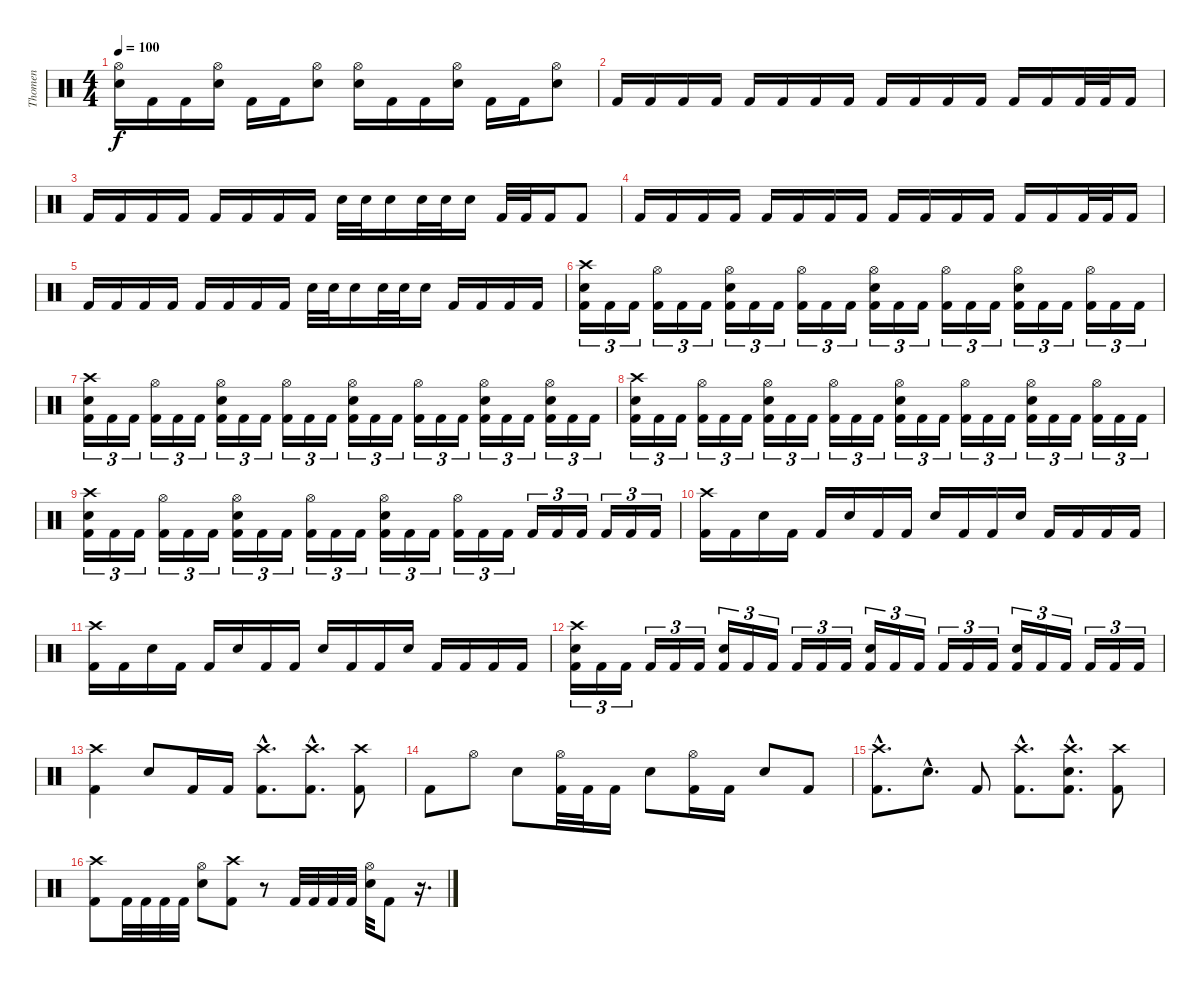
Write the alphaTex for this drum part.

\track ("Thomen" "Thomen") {instrument percussion}
\staff {score}
\articulation defaults
\ts (4 4)
\tempo 100
\clef neutral
\ks c
("Hi-Hat (open)" "Snare (hit) 2").16{dy f} "Kick (hit) 2".16 "Kick (hit) 2".16 ("Hi-Hat (open)" "Snare (hit) 2").16 "Kick (hit) 2".16 "Kick (hit) 2".16 ("Hi-Hat (open)" "Snare (hit) 2").8 ("Hi-Hat (open)" "Snare (hit) 2").16 "Kick (hit) 2".16 "Kick (hit) 2".16 ("Hi-Hat (open)" "Snare (hit) 2").16 "Kick (hit) 2".16 "Kick (hit) 2".16 ("Hi-Hat (open)" "Snare (hit) 2").8 |
"Kick (hit) 2".16 "Kick (hit) 2".16 "Kick (hit) 2".16 "Kick (hit) 2".16 "Kick (hit) 2".16 "Kick (hit) 2".16 "Kick (hit) 2".16 "Kick (hit) 2".16 "Kick (hit) 2".16 "Kick (hit) 2".16 "Kick (hit) 2".16 "Kick (hit) 2".16 "Kick (hit) 2".16 "Kick (hit) 2".16 "Kick (hit) 2".32 "Kick (hit) 2".32 "Kick (hit) 2".16 |
"Kick (hit) 2".16 "Kick (hit) 2".16 "Kick (hit) 2".16 "Kick (hit) 2".16 "Kick (hit) 2".16 "Kick (hit) 2".16 "Kick (hit) 2".16 "Kick (hit) 2".16 "Snare (hit) 2".32 "Snare (hit) 2".32 "Snare (hit) 2".16 "Snare (hit) 2".32 "Snare (hit) 2".32 "Snare (hit) 2".16 "Kick (hit) 2".32 "Kick (hit) 2".32 "Kick (hit) 2".16 "Kick (hit) 2".8 |
"Kick (hit) 2".16 "Kick (hit) 2".16 "Kick (hit) 2".16 "Kick (hit) 2".16 "Kick (hit) 2".16 "Kick (hit) 2".16 "Kick (hit) 2".16 "Kick (hit) 2".16 "Kick (hit) 2".16 "Kick (hit) 2".16 "Kick (hit) 2".16 "Kick (hit) 2".16 "Kick (hit) 2".16 "Kick (hit) 2".16 "Kick (hit) 2".32 "Kick (hit) 2".32 "Kick (hit) 2".16 |
"Kick (hit) 2".16 "Kick (hit) 2".16 "Kick (hit) 2".16 "Kick (hit) 2".16 "Kick (hit) 2".16 "Kick (hit) 2".16 "Kick (hit) 2".16 "Kick (hit) 2".16 "Snare (hit) 2".32 "Snare (hit) 2".32 "Snare (hit) 2".16 "Snare (hit) 2".32 "Snare (hit) 2".32 "Snare (hit) 2".16 "Kick (hit) 2".16 "Kick (hit) 2".16 "Kick (hit) 2".16 "Kick (hit) 2".16 |
("Crash high (hit)" "Snare (hit) 2" "Kick (hit) 2").16{tu (3 2)} "Kick (hit) 2".16{tu (3 2)} "Kick (hit) 2".16{tu (3 2)} ("Hi-Hat (open)" "Kick (hit) 2").16{tu (3 2)} "Kick (hit) 2".16{tu (3 2)} "Kick (hit) 2".16{tu (3 2)} ("Hi-Hat (open)" "Snare (hit) 2" "Kick (hit) 2").16{tu (3 2)} "Kick (hit) 2".16{tu (3 2)} "Kick (hit) 2".16{tu (3 2)} ("Hi-Hat (open)" "Kick (hit) 2").16{tu (3 2)} "Kick (hit) 2".16{tu (3 2)} "Kick (hit) 2".16{tu (3 2)} ("Hi-Hat (open)" "Snare (hit) 2" "Kick (hit) 2").16{tu (3 2)} "Kick (hit) 2".16{tu (3 2)} "Kick (hit) 2".16{tu (3 2)} ("Hi-Hat (open)" "Kick (hit) 2").16{tu (3 2)} "Kick (hit) 2".16{tu (3 2)} "Kick (hit) 2".16{tu (3 2)} ("Hi-Hat (open)" "Snare (hit) 2" "Kick (hit) 2").16{tu (3 2)} "Kick (hit) 2".16{tu (3 2)} "Kick (hit) 2".16{tu (3 2)} ("Hi-Hat (open)" "Kick (hit) 2").16{tu (3 2)} "Kick (hit) 2".16{tu (3 2)} "Kick (hit) 2".16{tu (3 2)} |
("Crash high (hit)" "Snare (hit) 2" "Kick (hit) 2").16{tu (3 2)} "Kick (hit) 2".16{tu (3 2)} "Kick (hit) 2".16{tu (3 2)} ("Hi-Hat (open)" "Kick (hit) 2").16{tu (3 2)} "Kick (hit) 2".16{tu (3 2)} "Kick (hit) 2".16{tu (3 2)} ("Hi-Hat (open)" "Snare (hit) 2" "Kick (hit) 2").16{tu (3 2)} "Kick (hit) 2".16{tu (3 2)} "Kick (hit) 2".16{tu (3 2)} ("Hi-Hat (open)" "Kick (hit) 2").16{tu (3 2)} "Kick (hit) 2".16{tu (3 2)} "Kick (hit) 2".16{tu (3 2)} ("Hi-Hat (open)" "Snare (hit) 2" "Kick (hit) 2").16{tu (3 2)} "Kick (hit) 2".16{tu (3 2)} "Kick (hit) 2".16{tu (3 2)} ("Hi-Hat (open)" "Kick (hit) 2").16{tu (3 2)} "Kick (hit) 2".16{tu (3 2)} "Kick (hit) 2".16{tu (3 2)} ("Hi-Hat (open)" "Snare (hit) 2" "Kick (hit) 2").16{tu (3 2)} "Kick (hit) 2".16{tu (3 2)} "Kick (hit) 2".16{tu (3 2)} ("Hi-Hat (open)" "Snare (hit) 2" "Kick (hit) 2").16{tu (3 2)} "Kick (hit) 2".16{tu (3 2)} "Kick (hit) 2".16{tu (3 2)} |
("Crash high (hit)" "Snare (hit) 2" "Kick (hit) 2").16{tu (3 2)} "Kick (hit) 2".16{tu (3 2)} "Kick (hit) 2".16{tu (3 2)} ("Hi-Hat (open)" "Kick (hit) 2").16{tu (3 2)} "Kick (hit) 2".16{tu (3 2)} "Kick (hit) 2".16{tu (3 2)} ("Hi-Hat (open)" "Snare (hit) 2" "Kick (hit) 2").16{tu (3 2)} "Kick (hit) 2".16{tu (3 2)} "Kick (hit) 2".16{tu (3 2)} ("Hi-Hat (open)" "Kick (hit) 2").16{tu (3 2)} "Kick (hit) 2".16{tu (3 2)} "Kick (hit) 2".16{tu (3 2)} ("Hi-Hat (open)" "Snare (hit) 2" "Kick (hit) 2").16{tu (3 2)} "Kick (hit) 2".16{tu (3 2)} "Kick (hit) 2".16{tu (3 2)} ("Hi-Hat (open)" "Kick (hit) 2").16{tu (3 2)} "Kick (hit) 2".16{tu (3 2)} "Kick (hit) 2".16{tu (3 2)} ("Hi-Hat (open)" "Snare (hit) 2" "Kick (hit) 2").16{tu (3 2)} "Kick (hit) 2".16{tu (3 2)} "Kick (hit) 2".16{tu (3 2)} ("Hi-Hat (open)" "Kick (hit) 2").16{tu (3 2)} "Kick (hit) 2".16{tu (3 2)} "Kick (hit) 2".16{tu (3 2)} |
("Crash high (hit)" "Snare (hit) 2" "Kick (hit) 2").16{tu (3 2)} "Kick (hit) 2".16{tu (3 2)} "Kick (hit) 2".16{tu (3 2)} ("Hi-Hat (open)" "Kick (hit) 2").16{tu (3 2)} "Kick (hit) 2".16{tu (3 2)} "Kick (hit) 2".16{tu (3 2)} ("Hi-Hat (open)" "Snare (hit) 2" "Kick (hit) 2").16{tu (3 2)} "Kick (hit) 2".16{tu (3 2)} "Kick (hit) 2".16{tu (3 2)} ("Hi-Hat (open)" "Kick (hit) 2").16{tu (3 2)} "Kick (hit) 2".16{tu (3 2)} "Kick (hit) 2".16{tu (3 2)} ("Hi-Hat (open)" "Snare (hit) 2" "Kick (hit) 2").16{tu (3 2)} "Kick (hit) 2".16{tu (3 2)} "Kick (hit) 2".16{tu (3 2)} ("Hi-Hat (open)" "Kick (hit) 2").16{tu (3 2)} "Kick (hit) 2".16{tu (3 2)} "Kick (hit) 2".16{tu (3 2)} "Kick (hit) 2".16{tu (3 2)} "Kick (hit) 2".16{tu (3 2)} "Kick (hit) 2".16{tu (3 2)} "Kick (hit) 2".16{tu (3 2)} "Kick (hit) 2".16{tu (3 2)} "Kick (hit) 2".16{tu (3 2)} |
("Crash high (hit)" "Kick (hit) 2").16 "Kick (hit) 2".16 "Snare (hit) 2".16 "Kick (hit) 2".16 "Kick (hit) 2".16 "Snare (hit) 2".16 "Kick (hit) 2".16 "Kick (hit) 2".16 "Snare (hit) 2".16 "Kick (hit) 2".16 "Kick (hit) 2".16 "Snare (hit) 2".16 "Kick (hit) 2".16 "Kick (hit) 2".16 "Kick (hit) 2".16 "Kick (hit) 2".16 |
("Crash high (hit)" "Kick (hit) 2").16 "Kick (hit) 2".16 "Snare (hit) 2".16 "Kick (hit) 2".16 "Kick (hit) 2".16 "Snare (hit) 2".16 "Kick (hit) 2".16 "Kick (hit) 2".16 "Snare (hit) 2".16 "Kick (hit) 2".16 "Kick (hit) 2".16 "Snare (hit) 2".16 "Kick (hit) 2".16 "Kick (hit) 2".16 "Kick (hit) 2".16 "Kick (hit) 2".16 |
("Crash high (hit)" "Snare (hit) 2" "Kick (hit) 2").16{tu (3 2)} "Kick (hit) 2".16{tu (3 2)} "Kick (hit) 2".16{tu (3 2)} "Kick (hit) 2".16{tu (3 2)} "Kick (hit) 2".16{tu (3 2)} "Kick (hit) 2".16{tu (3 2)} ("Snare (hit) 2" "Kick (hit) 2").16{tu (3 2)} "Kick (hit) 2".16{tu (3 2)} "Kick (hit) 2".16{tu (3 2)} "Kick (hit) 2".16{tu (3 2)} "Kick (hit) 2".16{tu (3 2)} "Kick (hit) 2".16{tu (3 2)} ("Snare (hit) 2" "Kick (hit) 2").16{tu (3 2)} "Kick (hit) 2".16{tu (3 2)} "Kick (hit) 2".16{tu (3 2)} "Kick (hit) 2".16{tu (3 2)} "Kick (hit) 2".16{tu (3 2)} "Kick (hit) 2".16{tu (3 2)} ("Snare (hit) 2" "Kick (hit) 2").16{tu (3 2)} "Kick (hit) 2".16{tu (3 2)} "Kick (hit) 2".16{tu (3 2)} "Kick (hit) 2".16{tu (3 2)} "Kick (hit) 2".16{tu (3 2)} "Kick (hit) 2".16{tu (3 2)} |
("Crash high (hit)" "Kick (hit) 2").4 "Snare (hit) 2".8 "Kick (hit) 2".16 "Kick (hit) 2".16 ("Crash high (hit)"{hac} "Kick (hit) 2"{hac}).8{d} ("Crash high (hit)"{hac} "Kick (hit) 2"{hac}).8{d} ("Crash high (hit)" "Kick (hit) 2").8 |
"Kick (hit) 2".8 "Hi-Hat (open)".8 "Snare (hit) 2".8 ("Hi-Hat (open)" "Kick (hit) 2").32 "Kick (hit) 2".32 "Kick (hit) 2".16 "Snare (hit) 2".8 ("Hi-Hat (open)" "Kick (hit) 2").16 "Kick (hit) 2".16 "Snare (hit) 2".8 "Kick (hit) 2".8 |
("Crash high (hit)"{hac} "Kick (hit) 2"{hac}).8{d} "Snare (hit) 2"{hac}.8{d} "Kick (hit) 2".8 ("Crash high (hit)"{hac} "Kick (hit) 2"{hac}).8{d} ("Crash high (hit)"{hac} "Snare (hit) 2"{hac} "Kick (hit) 2"{hac}).8{d} ("Crash high (hit)" "Kick (hit) 2").8 |
("Crash high (hit)" "Kick (hit) 2").8 "Kick (hit) 2".32 "Kick (hit) 2".32 "Kick (hit) 2".32 "Kick (hit) 2".32 ("Hi-Hat (open)" "Snare (hit) 2").8 ("Crash high (hit)" "Kick (hit) 2").8 r.8 "Kick (hit) 2".32 "Kick (hit) 2".32 "Kick (hit) 2".32 "Kick (hit) 2".32 ("Hi-Hat (open)" "Snare (hit) 2").32 "Kick (hit) 2".8 r.16{d}
